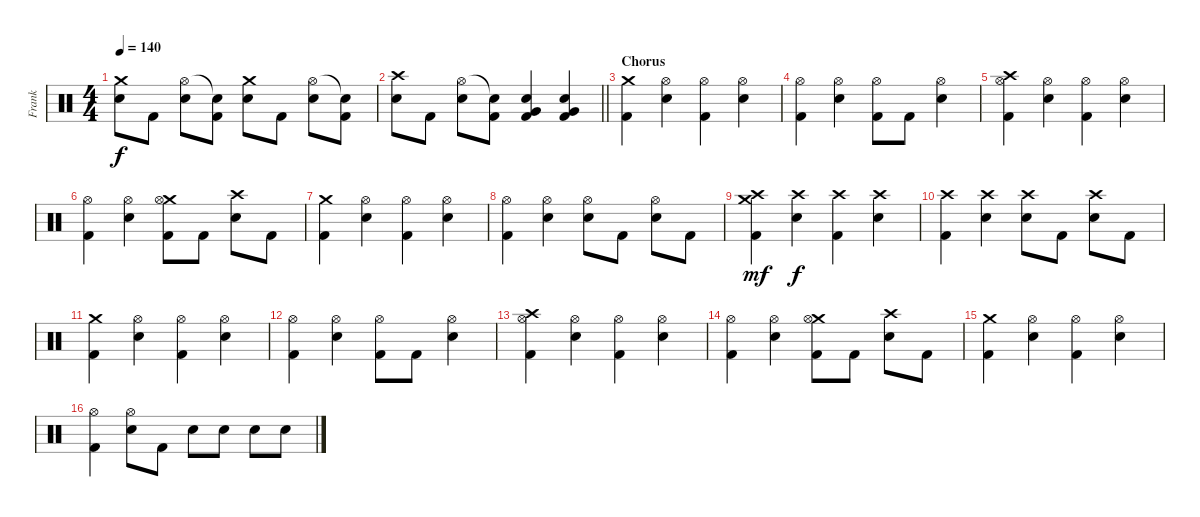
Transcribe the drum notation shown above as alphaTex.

\track ("Frank" "Frank") {instrument percussion}
\staff {score}
\articulation defaults
\ts (4 4)
\tempo 140
\clef neutral
\ks c
("Crash medium (hit)" "Snare (hit) 2").8{dy f} "Kick (hit) 2".8 ("Hi-Hat (open)" "Snare (hit) 2").8 ("Snare (hit)"{t} "Kick (hit) 2").8 ("Crash medium (hit)" "Snare (hit) 2").8 "Kick (hit) 2".8 ("Hi-Hat (open)" "Snare (hit) 2").8 ("Snare (hit)"{t} "Kick (hit) 2").8 |
\barLineRight lightlight
("Crash high (hit)" "Snare (hit) 2").8 "Kick (hit) 2".8 ("Hi-Hat (open)" "Snare (hit) 2").8 ("Snare (hit)"{t} "Kick (hit) 2").8 ("Very Low Tom (hit)" "Snare (hit) 2" "Kick (hit) 2").4 ("Very Low Tom (hit)" "Snare (hit) 2" "Kick (hit) 2").4 |
\section ("" "Chorus")
("Crash medium (hit)" "Kick (hit) 2").4 ("Hi-Hat (open)" "Snare (hit) 2").4 ("Hi-Hat (open)" "Kick (hit) 2").4 ("Hi-Hat (open)" "Snare (hit) 2").4 |
("Hi-Hat (open)" "Kick (hit) 2").4 ("Hi-Hat (open)" "Snare (hit) 2").4 ("Hi-Hat (open)" "Kick (hit) 2").8 "Kick (hit) 2".8 ("Hi-Hat (open)" "Snare (hit) 2").4 |
("Crash high (hit)" "Hi-Hat (open)" "Kick (hit) 2").4 ("Hi-Hat (open)" "Snare (hit) 2").4 ("Hi-Hat (open)" "Kick (hit) 2").4 ("Hi-Hat (open)" "Snare (hit) 2").4 |
("Hi-Hat (open)" "Kick (hit) 2").4 ("Hi-Hat (open)" "Snare (hit) 2").4 ("Crash medium (hit)" "Hi-Hat (open)" "Kick (hit) 2").8 "Kick (hit) 2".8 ("Crash high (hit)" "Snare (hit) 2").8 "Kick (hit) 2".8 |
("Crash medium (hit)" "Kick (hit) 2").4 ("Hi-Hat (open)" "Snare (hit) 2").4 ("Hi-Hat (open)" "Kick (hit) 2").4 ("Hi-Hat (open)" "Snare (hit) 2").4 |
("Hi-Hat (open)" "Kick (hit) 2").4 ("Hi-Hat (open)" "Snare (hit) 2").4 ("Hi-Hat (open)" "Snare (hit) 2").8 "Kick (hit) 2".8 ("Hi-Hat (open)" "Snare (hit) 2").8 "Kick (hit) 2".8 |
("Crash medium (hit)" "Crash high (hit)" "Kick (hit) 2").4{dy mf} ("Crash high (hit)" "Snare (hit) 2").4{dy f} ("Crash high (hit)" "Kick (hit) 2").4 ("Crash high (hit)" "Snare (hit) 2").4 |
("Crash high (hit)" "Kick (hit) 2").4 ("Crash high (hit)" "Snare (hit) 2").4 ("Crash high (hit)" "Snare (hit) 2").8 "Kick (hit) 2".8 ("Crash high (hit)" "Snare (hit) 2").8 "Kick (hit) 2".8 |
("Crash medium (hit)" "Kick (hit) 2").4 ("Hi-Hat (open)" "Snare (hit) 2").4 ("Hi-Hat (open)" "Kick (hit) 2").4 ("Hi-Hat (open)" "Snare (hit) 2").4 |
("Hi-Hat (open)" "Kick (hit) 2").4 ("Hi-Hat (open)" "Snare (hit) 2").4 ("Hi-Hat (open)" "Kick (hit) 2").8 "Kick (hit) 2".8 ("Hi-Hat (open)" "Snare (hit) 2").4 |
("Crash high (hit)" "Hi-Hat (open)" "Kick (hit) 2").4 ("Hi-Hat (open)" "Snare (hit) 2").4 ("Hi-Hat (open)" "Kick (hit) 2").4 ("Hi-Hat (open)" "Snare (hit) 2").4 |
("Hi-Hat (open)" "Kick (hit) 2").4 ("Hi-Hat (open)" "Snare (hit) 2").4 ("Crash medium (hit)" "Hi-Hat (open)" "Kick (hit) 2").8 "Kick (hit) 2".8 ("Crash high (hit)" "Snare (hit) 2").8 "Kick (hit) 2".8 |
("Crash medium (hit)" "Kick (hit) 2").4 ("Hi-Hat (open)" "Snare (hit) 2").4 ("Hi-Hat (open)" "Kick (hit) 2").4 ("Hi-Hat (open)" "Snare (hit) 2").4 |
("Hi-Hat (open)" "Kick (hit) 2").4 ("Hi-Hat (open)" "Snare (hit) 2").8 "Kick (hit) 2".8 "Snare (hit) 2".8 "Snare (hit) 2".8 "Snare (hit) 2".8 "Snare (hit) 2".8
